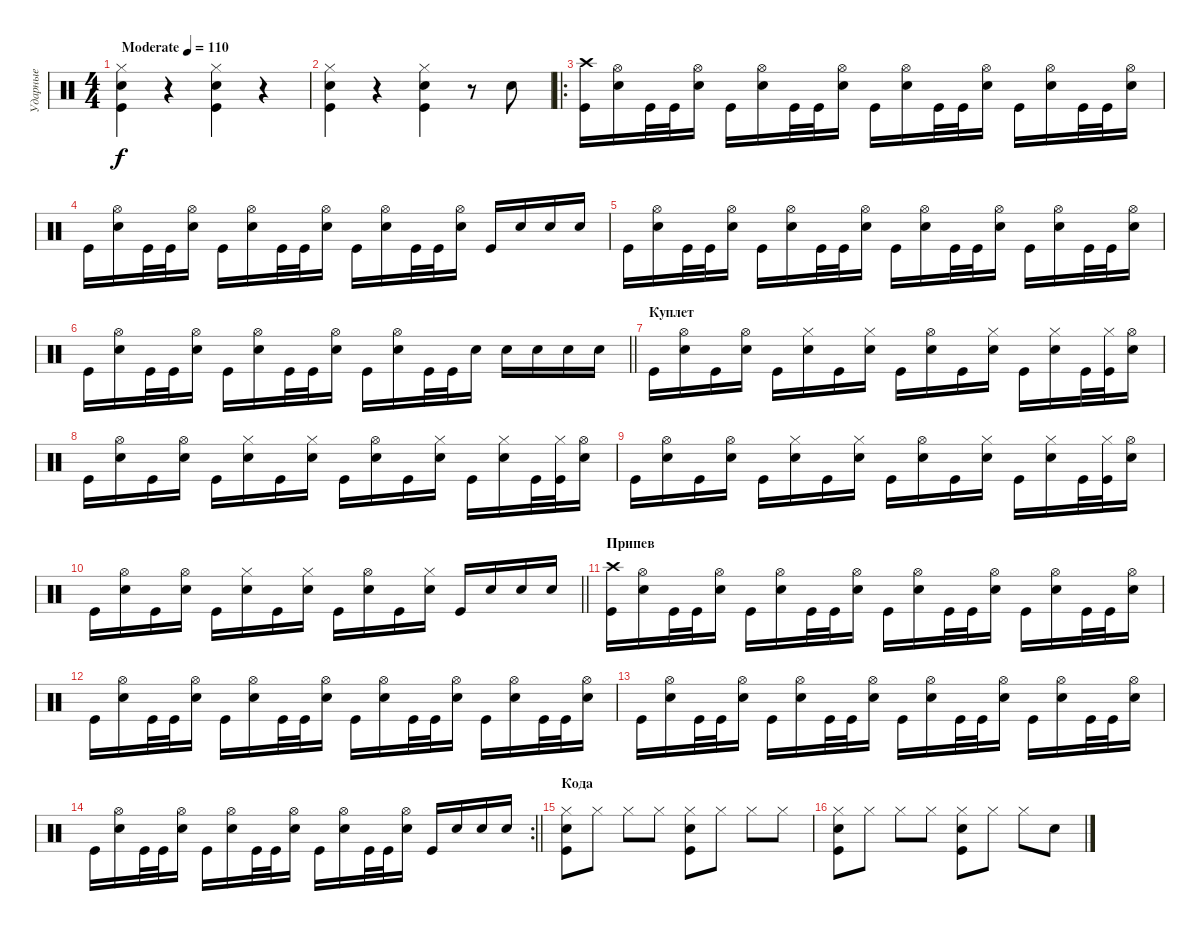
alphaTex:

\track ("Ударные" "Ударные") {instrument percussion}
\staff {score}
\articulation defaults
\ts (4 4)
\tempo (110 "Moderate")
\clef neutral
\ks c
("Kick (hit)" "Snare (hit) 2" "Hi-Hat (closed)").4{dy f} r.4 ("Kick (hit)" "Snare (hit) 2" "Hi-Hat (closed)").4 r.4 |
("Kick (hit)" "Snare (hit) 2" "Hi-Hat (closed)").4 r.4 ("Kick (hit)" "Snare (hit) 2" "Hi-Hat (closed)").4 r.8 "Snare (hit) 2".8 |
\ro
("Kick (hit)" "Crash high (hit)").16 ("Snare (hit) 2" "Hi-Hat (open)").16 "Kick (hit)".32 "Kick (hit)".32 ("Snare (hit) 2" "Hi-Hat (open)").16 "Kick (hit)".16 ("Snare (hit) 2" "Hi-Hat (open)").16 "Kick (hit)".32 "Kick (hit)".32 ("Snare (hit) 2" "Hi-Hat (open)").16 "Kick (hit)".16 ("Snare (hit) 2" "Hi-Hat (open)").16 "Kick (hit)".32 "Kick (hit)".32 ("Snare (hit) 2" "Hi-Hat (open)").16 "Kick (hit)".16 ("Snare (hit) 2" "Hi-Hat (open)").16 "Kick (hit)".32 "Kick (hit)".32 ("Snare (hit) 2" "Hi-Hat (open)").16 |
"Kick (hit)".16 ("Snare (hit) 2" "Hi-Hat (open)").16 "Kick (hit)".32 "Kick (hit)".32 ("Snare (hit) 2" "Hi-Hat (open)").16 "Kick (hit)".16 ("Snare (hit) 2" "Hi-Hat (open)").16 "Kick (hit)".32 "Kick (hit)".32 ("Snare (hit) 2" "Hi-Hat (open)").16 "Kick (hit)".16 ("Snare (hit) 2" "Hi-Hat (open)").16 "Kick (hit)".32 "Kick (hit)".32 ("Snare (hit) 2" "Hi-Hat (open)").16 "Kick (hit)".16 "Snare (hit) 2".16 "Snare (hit) 2".16 "Snare (hit) 2".16 |
"Kick (hit)".16 ("Snare (hit) 2" "Hi-Hat (open)").16 "Kick (hit)".32 "Kick (hit)".32 ("Snare (hit) 2" "Hi-Hat (open)").16 "Kick (hit)".16 ("Snare (hit) 2" "Hi-Hat (open)").16 "Kick (hit)".32 "Kick (hit)".32 ("Snare (hit) 2" "Hi-Hat (open)").16 "Kick (hit)".16 ("Snare (hit) 2" "Hi-Hat (open)").16 "Kick (hit)".32 "Kick (hit)".32 ("Snare (hit) 2" "Hi-Hat (open)").16 "Kick (hit)".16 ("Snare (hit) 2" "Hi-Hat (open)").16 "Kick (hit)".32 "Kick (hit)".32 ("Snare (hit) 2" "Hi-Hat (open)").16 |
\barLineRight lightlight "Kick (hit)".16
("Snare (hit) 2" "Hi-Hat (open)").16 "Kick (hit)".32 "Kick (hit)".32 ("Snare (hit) 2" "Hi-Hat (open)").16 "Kick (hit)".16 ("Snare (hit) 2" "Hi-Hat (open)").16 "Kick (hit)".32 "Kick (hit)".32 ("Snare (hit) 2" "Hi-Hat (open)").16 "Kick (hit)".16 ("Snare (hit) 2" "Hi-Hat (open)").16 "Kick (hit)".32 "Kick (hit)".32 "Snare (hit) 2".16 "Snare (hit) 2".16 "Snare (hit) 2".16 "Snare (hit) 2".16 "Snare (hit) 2".16 |
\section ("" "Куплет")
"Kick (hit)".16 ("Snare (hit) 2" "Hi-Hat (open)").16 "Kick (hit)".16 ("Snare (hit) 2" "Hi-Hat (open)").16 "Kick (hit)".16 ("Snare (hit) 2" "Hi-Hat (closed)").16 "Kick (hit)".16 ("Snare (hit) 2" "Hi-Hat (closed)").16 "Kick (hit)".16 ("Snare (hit) 2" "Hi-Hat (open)").16 "Kick (hit)".16 ("Snare (hit) 2" "Hi-Hat (closed)").16 "Kick (hit)".16 ("Snare (hit) 2" "Hi-Hat (closed)").16 "Kick (hit)".32 ("Kick (hit)" "Hi-Hat (closed)").32 ("Snare (hit) 2" "Hi-Hat (open)").16 |
"Kick (hit)".16 ("Snare (hit) 2" "Hi-Hat (open)").16 "Kick (hit)".16 ("Snare (hit) 2" "Hi-Hat (open)").16 "Kick (hit)".16 ("Snare (hit) 2" "Hi-Hat (closed)").16 "Kick (hit)".16 ("Snare (hit) 2" "Hi-Hat (closed)").16 "Kick (hit)".16 ("Snare (hit) 2" "Hi-Hat (open)").16 "Kick (hit)".16 ("Snare (hit) 2" "Hi-Hat (closed)").16 "Kick (hit)".16 ("Snare (hit) 2" "Hi-Hat (closed)").16 "Kick (hit)".32 ("Kick (hit)" "Hi-Hat (closed)").32 ("Snare (hit) 2" "Hi-Hat (open)").16 |
"Kick (hit)".16 ("Snare (hit) 2" "Hi-Hat (open)").16 "Kick (hit)".16 ("Snare (hit) 2" "Hi-Hat (open)").16 "Kick (hit)".16 ("Snare (hit) 2" "Hi-Hat (closed)").16 "Kick (hit)".16 ("Snare (hit) 2" "Hi-Hat (closed)").16 "Kick (hit)".16 ("Snare (hit) 2" "Hi-Hat (open)").16 "Kick (hit)".16 ("Snare (hit) 2" "Hi-Hat (closed)").16 "Kick (hit)".16 ("Snare (hit) 2" "Hi-Hat (closed)").16 "Kick (hit)".32 ("Kick (hit)" "Hi-Hat (closed)").32 ("Snare (hit) 2" "Hi-Hat (open)").16 |
\barLineRight lightlight "Kick (hit)".16
("Snare (hit) 2" "Hi-Hat (open)").16 "Kick (hit)".16 ("Snare (hit) 2" "Hi-Hat (open)").16 "Kick (hit)".16 ("Snare (hit) 2" "Hi-Hat (closed)").16 "Kick (hit)".16 ("Snare (hit) 2" "Hi-Hat (closed)").16 "Kick (hit)".16 ("Snare (hit) 2" "Hi-Hat (open)").16 "Kick (hit)".16 ("Snare (hit) 2" "Hi-Hat (closed)").16 "Kick (hit)".16 "Snare (hit) 2".16 "Snare (hit) 2".16 "Snare (hit) 2".16 |
\section ("" "Припев")
("Kick (hit)" "Crash high (hit)").16 ("Snare (hit) 2" "Hi-Hat (open)").16 "Kick (hit)".32 "Kick (hit)".32 ("Snare (hit) 2" "Hi-Hat (open)").16 "Kick (hit)".16 ("Snare (hit) 2" "Hi-Hat (open)").16 "Kick (hit)".32 "Kick (hit)".32 ("Snare (hit) 2" "Hi-Hat (open)").16 "Kick (hit)".16 ("Snare (hit) 2" "Hi-Hat (open)").16 "Kick (hit)".32 "Kick (hit)".32 ("Snare (hit) 2" "Hi-Hat (open)").16 "Kick (hit)".16 ("Snare (hit) 2" "Hi-Hat (open)").16 "Kick (hit)".32 "Kick (hit)".32 ("Snare (hit) 2" "Hi-Hat (open)").16 |
"Kick (hit)".16 ("Snare (hit) 2" "Hi-Hat (open)").16 "Kick (hit)".32 "Kick (hit)".32 ("Snare (hit) 2" "Hi-Hat (open)").16 "Kick (hit)".16 ("Snare (hit) 2" "Hi-Hat (open)").16 "Kick (hit)".32 "Kick (hit)".32 ("Snare (hit) 2" "Hi-Hat (open)").16 "Kick (hit)".16 ("Snare (hit) 2" "Hi-Hat (open)").16 "Kick (hit)".32 "Kick (hit)".32 ("Snare (hit) 2" "Hi-Hat (open)").16 "Kick (hit)".16 ("Snare (hit) 2" "Hi-Hat (open)").16 "Kick (hit)".32 "Kick (hit)".32 ("Snare (hit) 2" "Hi-Hat (open)").16 |
"Kick (hit)".16 ("Snare (hit) 2" "Hi-Hat (open)").16 "Kick (hit)".32 "Kick (hit)".32 ("Snare (hit) 2" "Hi-Hat (open)").16 "Kick (hit)".16 ("Snare (hit) 2" "Hi-Hat (open)").16 "Kick (hit)".32 "Kick (hit)".32 ("Snare (hit) 2" "Hi-Hat (open)").16 "Kick (hit)".16 ("Snare (hit) 2" "Hi-Hat (open)").16 "Kick (hit)".32 "Kick (hit)".32 ("Snare (hit) 2" "Hi-Hat (open)").16 "Kick (hit)".16 ("Snare (hit) 2" "Hi-Hat (open)").16 "Kick (hit)".32 "Kick (hit)".32 ("Snare (hit) 2" "Hi-Hat (open)").16 |
\rc 2
\barLineRight lightlight "Kick (hit)".16
("Snare (hit) 2" "Hi-Hat (open)").16 "Kick (hit)".32 "Kick (hit)".32 ("Snare (hit) 2" "Hi-Hat (open)").16 "Kick (hit)".16 ("Snare (hit) 2" "Hi-Hat (open)").16 "Kick (hit)".32 "Kick (hit)".32 ("Snare (hit) 2" "Hi-Hat (open)").16 "Kick (hit)".16 ("Snare (hit) 2" "Hi-Hat (open)").16 "Kick (hit)".32 "Kick (hit)".32 ("Snare (hit) 2" "Hi-Hat (open)").16 "Kick (hit)".16 "Snare (hit) 2".16 "Snare (hit) 2".16 "Snare (hit) 2".16 |
\section ("" "Кода")
("Kick (hit)" "Snare (hit) 2" "Hi-Hat (closed)").8 "Hi-Hat (closed)".8 "Hi-Hat (closed)".8 "Hi-Hat (closed)".8 ("Kick (hit)" "Snare (hit) 2" "Hi-Hat (closed)").8 "Hi-Hat (closed)".8 "Hi-Hat (closed)".8 "Hi-Hat (closed)".8 |
("Kick (hit)" "Snare (hit) 2" "Hi-Hat (closed)").8 "Hi-Hat (closed)".8 "Hi-Hat (closed)".8 "Hi-Hat (closed)".8 ("Kick (hit)" "Snare (hit) 2" "Hi-Hat (closed)").8 "Hi-Hat (closed)".8 "Hi-Hat (closed)".8 "Snare (hit) 2".8
